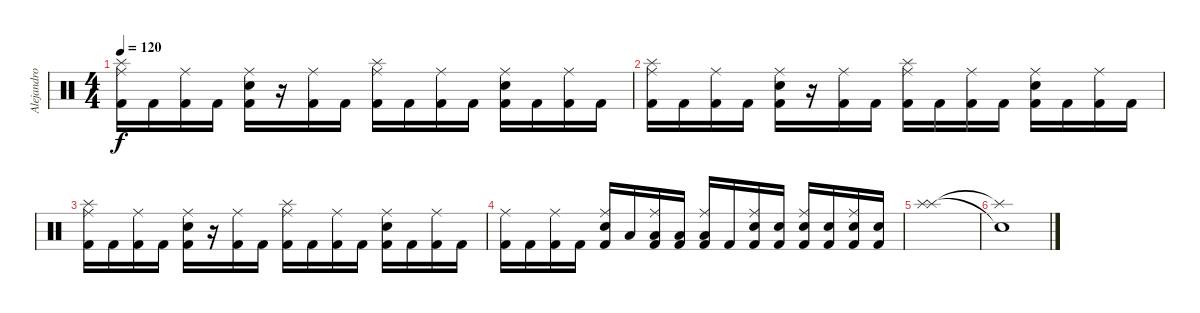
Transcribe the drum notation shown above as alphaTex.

\track ("Alejandro" "Alejandro") {instrument percussion}
\staff {score}
\articulation defaults
\ts (4 4)
\tempo 120
\clef neutral
\ks c
("Kick (hit) 2" "Splash (hit)" "Ride (middle)").16{dy f} "Kick (hit) 2".16 ("Kick (hit) 2" "Ride (middle)").16 "Kick (hit) 2".16 ("Kick (hit) 2" "Snare (hit) 2" "Ride (middle)").16 r.16 ("Kick (hit) 2" "Ride (middle)").16 "Kick (hit) 2".16 ("Kick (hit) 2" "Splash (hit)" "Ride (middle)").16 "Kick (hit) 2".16 ("Kick (hit) 2" "Ride (middle)").16 "Kick (hit) 2".16 ("Kick (hit) 2" "Snare (hit) 2" "Ride (middle)").16 "Kick (hit) 2".16 ("Kick (hit) 2" "Ride (middle)").16 "Kick (hit) 2".16 |
("Kick (hit) 2" "Splash (hit)" "Ride (middle)").16 "Kick (hit) 2".16 ("Kick (hit) 2" "Ride (middle)").16 "Kick (hit) 2".16 ("Kick (hit) 2" "Snare (hit) 2" "Ride (middle)").16 r.16 ("Kick (hit) 2" "Ride (middle)").16 "Kick (hit) 2".16 ("Kick (hit) 2" "Splash (hit)" "Ride (middle)").16 "Kick (hit) 2".16 ("Kick (hit) 2" "Ride (middle)").16 "Kick (hit) 2".16 ("Kick (hit) 2" "Snare (hit) 2" "Ride (middle)").16 "Kick (hit) 2".16 ("Kick (hit) 2" "Ride (middle)").16 "Kick (hit) 2".16 |
("Kick (hit) 2" "Splash (hit)" "Ride (middle)").16 "Kick (hit) 2".16 ("Kick (hit) 2" "Ride (middle)").16 "Kick (hit) 2".16 ("Kick (hit) 2" "Snare (hit) 2" "Ride (middle)").16 r.16 ("Kick (hit) 2" "Ride (middle)").16 "Kick (hit) 2".16 ("Kick (hit) 2" "Splash (hit)" "Ride (middle)").16 "Kick (hit) 2".16 ("Kick (hit) 2" "Ride (middle)").16 "Kick (hit) 2".16 ("Kick (hit) 2" "Snare (hit) 2" "Ride (middle)").16 "Kick (hit) 2".16 ("Kick (hit) 2" "Ride (middle)").16 "Kick (hit) 2".16 |
("Kick (hit) 2" "Ride (middle)").16 "Kick (hit) 2".16 ("Kick (hit) 2" "Ride (middle)").16 "Kick (hit) 2".16 ("Kick (hit) 2" "Snare (hit) 2" "Ride (middle)").16 "Low Floor Tom (hit)".16 ("Kick (hit) 2" "Low Floor Tom (hit)" "Ride (middle)").16 ("Kick (hit) 2" "Low Floor Tom (hit)").16 ("Kick (hit) 2" "Low Floor Tom (hit)" "Ride (middle)").16 "Kick (hit) 2".16 ("Kick (hit) 2" "Snare (hit) 2" "Ride (middle)").16 ("Kick (hit) 2" "Snare (hit) 2").16 ("Kick (hit) 2" "Snare (hit) 2" "Ride (middle)").16 ("Kick (hit) 2" "Snare (hit) 2").16 ("Kick (hit) 2" "Snare (hit) 2" "Ride (middle)").16 ("Kick (hit) 2" "Snare (hit) 2").16 |
("Splash (hit)" "Splash (hit)").1 |
("Splash (hit)"{t} "Snare (hit)"{t}).1
